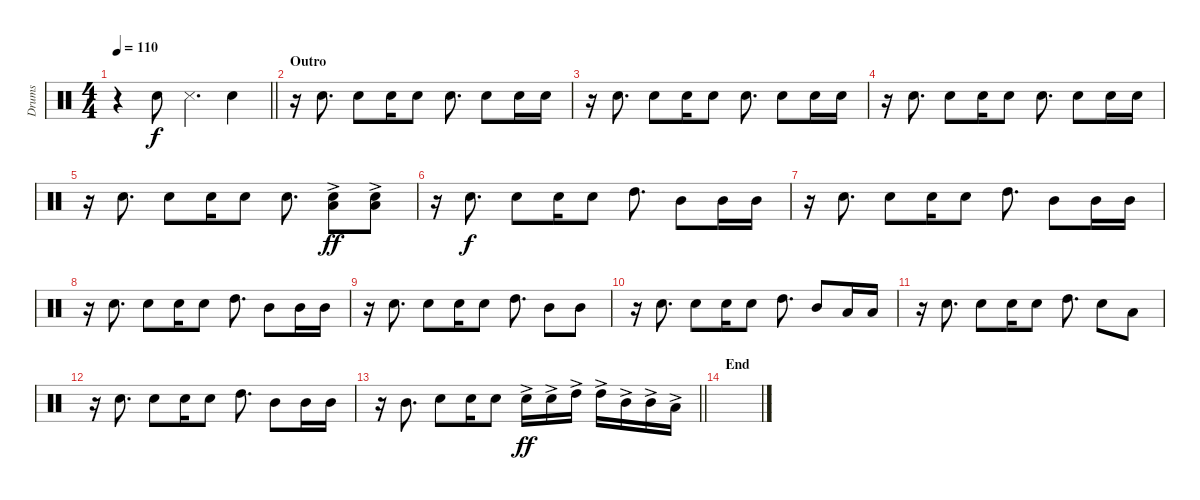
\track ("Drums" "Drums") {instrument percussion}
\staff {score}
\articulation defaults
\ts (4 4)
\tempo 110
\clef neutral
\barLineRight lightlight
\ks c
r.4{dy f} "Snare (hit) 2".8 "Snare (side stick) 3".4{d} "Snare (hit) 2".4 |
\section ("" "Outro")
r.16 "Snare (hit) 2".8{d} "Snare (hit) 2".8 "Snare (hit) 2".16 "Snare (hit) 2".8 "Snare (hit) 2".8{d} "Snare (hit) 2".8 "Snare (hit) 2".16 "Snare (hit) 2".16 |
r.16 "Snare (hit) 2".8{d} "Snare (hit) 2".8 "Snare (hit) 2".16 "Snare (hit) 2".8 "Snare (hit) 2".8{d} "Snare (hit) 2".8 "Snare (hit) 2".16 "Snare (hit) 2".16 |
r.16 "Snare (hit) 2".8{d} "Snare (hit) 2".8 "Snare (hit) 2".16 "Snare (hit) 2".8 "Snare (hit) 2".8{d} "Snare (hit) 2".8 "Snare (hit) 2".16 "Snare (hit) 2".16 |
r.16 "Snare (hit) 2".8{d} "Snare (hit) 2".8 "Snare (hit) 2".16 "Snare (hit) 2".8 "Snare (hit) 2".8{d} ("Low Tom (hit)"{ac} "Snare (hit) 2"{ac}).8{dy ff} ("Low Tom (hit)"{ac} "Snare (hit) 2"{ac}).8 |
r.16 "Snare (hit) 2".8{d dy f} "Snare (hit) 2".8 "Snare (hit) 2".16 "Snare (hit) 2".8 "High Tom (hit)".8{d} "Mid Tom (hit)".8 "Mid Tom (hit)".16 "Mid Tom (hit)".16 |
r.16 "Snare (hit) 2".8{d} "Snare (hit) 2".8 "Snare (hit) 2".16 "Snare (hit) 2".8 "High Tom (hit)".8{d} "Mid Tom (hit)".8 "Mid Tom (hit)".16 "Mid Tom (hit)".16 |
r.16 "Snare (hit) 2".8{d} "Snare (hit) 2".8 "Snare (hit) 2".16 "Snare (hit) 2".8 "High Tom (hit)".8{d} "Mid Tom (hit)".8 "Mid Tom (hit)".16 "Mid Tom (hit)".16 |
r.16 "Snare (hit) 2".8{d} "Snare (hit) 2".8 "Snare (hit) 2".16 "Snare (hit) 2".8 "High Tom (hit)".8{d} "Mid Tom (hit)".8 "Mid Tom (hit)".8 |
r.16 "Snare (hit) 2".8{d} "Snare (hit) 2".8 "Snare (hit) 2".16 "Snare (hit) 2".8 "High Tom (hit)".8{d} "Mid Tom (hit)".8 "Low Tom (hit)".16 "Low Tom (hit)".16 |
r.16 "Snare (hit) 2".8{d} "Snare (hit) 2".8 "Snare (hit) 2".16 "Snare (hit) 2".8 "High Tom (hit)".8{d} "Snare (hit) 2".8 "Low Tom (hit)".8 |
r.16 "Snare (hit) 2".8{d} "Snare (hit) 2".8 "Snare (hit) 2".16 "Snare (hit) 2".8 "High Tom (hit)".8{d} "Mid Tom (hit)".8 "Mid Tom (hit)".16 "Mid Tom (hit)".16 |
\barLineRight lightlight
r.16 "Mid Tom (hit)".8{d} "Snare (hit) 2".8 "Snare (hit) 2".16 "Snare (hit) 2".8 "Snare (hit) 2"{ac}.16{dy ff} "Snare (hit) 2"{ac}.16 "High Tom (hit)"{ac}.16 "High Tom (hit)"{ac}.16 "Mid Tom (hit)"{ac}.16 "Mid Tom (hit)"{ac}.16 "Low Tom (hit)"{ac}.16 |
\section ("" "End")
